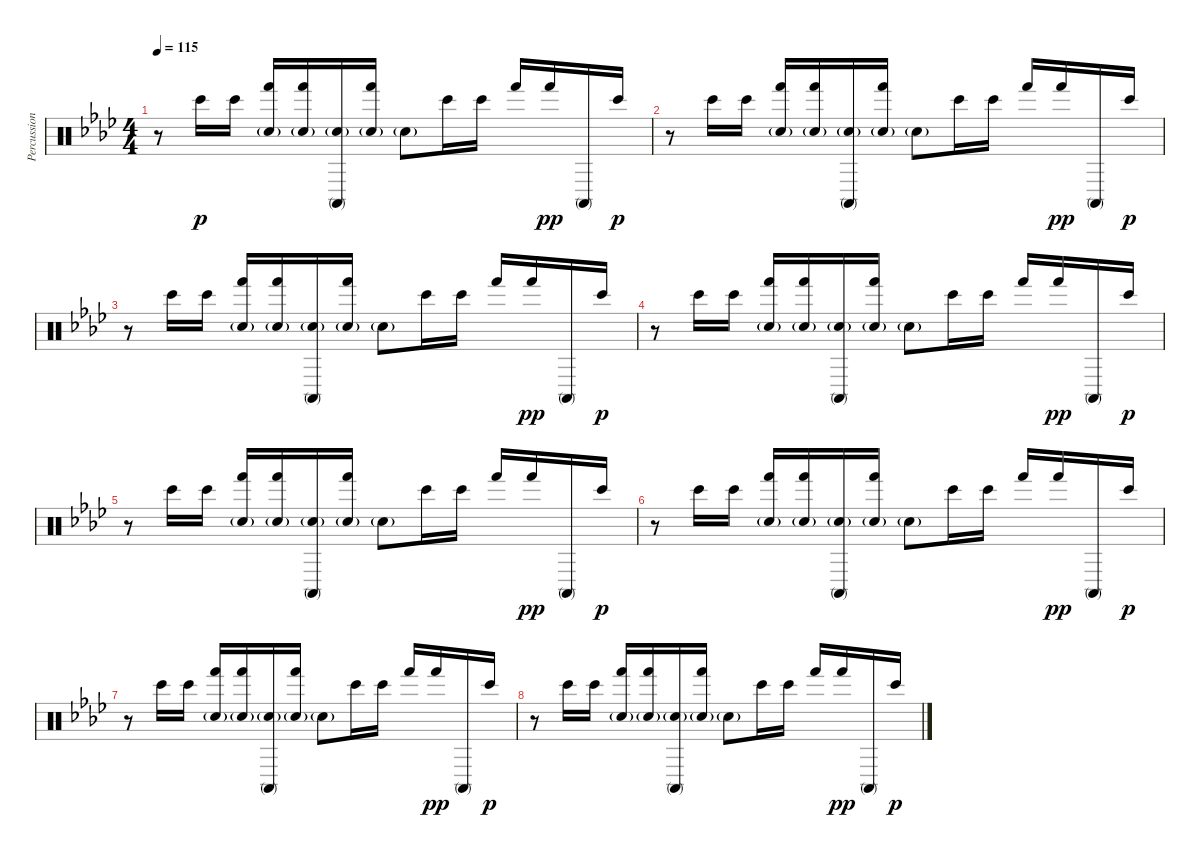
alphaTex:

\track ("Percussion" "Percussion") {instrument percussion}
\staff {score}
\articulation defaults
\ts (4 4)
\tempo 115
\clef neutral
\ks ab
r.8{dy p} "Bongo High (hit)".16 "Bongo High (hit)".16 ("Electric Snare (hit)"{g} "Hand (hit)").16 ("Electric Snare (hit)"{g} "Hand (hit)").16 ("Electric Snare (hit)"{g} "Conga high (mute)").16 ("Electric Snare (hit)"{g} "Hand (hit)").16 "Electric Snare (hit)"{g}.8 "Bongo High (hit)".16 "Bongo High (hit)".16 "Hand (hit)".16 "Hand (hit)".16{dy pp} "Conga high (mute)".16 "Bongo High (hit)".16{dy p} |
r.8 "Bongo High (hit)".16 "Bongo High (hit)".16 ("Electric Snare (hit)"{g} "Hand (hit)").16 ("Electric Snare (hit)"{g} "Hand (hit)").16 ("Electric Snare (hit)"{g} "Conga high (mute)").16 ("Electric Snare (hit)"{g} "Hand (hit)").16 "Electric Snare (hit)"{g}.8 "Bongo High (hit)".16 "Bongo High (hit)".16 "Hand (hit)".16 "Hand (hit)".16{dy pp} "Conga high (mute)".16 "Bongo High (hit)".16{dy p} |
r.8 "Bongo High (hit)".16 "Bongo High (hit)".16 ("Electric Snare (hit)"{g} "Hand (hit)").16 ("Electric Snare (hit)"{g} "Hand (hit)").16 ("Electric Snare (hit)"{g} "Conga high (mute)").16 ("Electric Snare (hit)"{g} "Hand (hit)").16 "Electric Snare (hit)"{g}.8 "Bongo High (hit)".16 "Bongo High (hit)".16 "Hand (hit)".16 "Hand (hit)".16{dy pp} "Conga high (mute)".16 "Bongo High (hit)".16{dy p} |
r.8 "Bongo High (hit)".16 "Bongo High (hit)".16 ("Electric Snare (hit)"{g} "Hand (hit)").16 ("Electric Snare (hit)"{g} "Hand (hit)").16 ("Electric Snare (hit)"{g} "Conga high (mute)").16 ("Electric Snare (hit)"{g} "Hand (hit)").16 "Electric Snare (hit)"{g}.8 "Bongo High (hit)".16 "Bongo High (hit)".16 "Hand (hit)".16 "Hand (hit)".16{dy pp} "Conga high (mute)".16 "Bongo High (hit)".16{dy p} |
r.8 "Bongo High (hit)".16 "Bongo High (hit)".16 ("Electric Snare (hit)"{g} "Hand (hit)").16 ("Electric Snare (hit)"{g} "Hand (hit)").16 ("Electric Snare (hit)"{g} "Conga high (mute)").16 ("Electric Snare (hit)"{g} "Hand (hit)").16 "Electric Snare (hit)"{g}.8 "Bongo High (hit)".16 "Bongo High (hit)".16 "Hand (hit)".16 "Hand (hit)".16{dy pp} "Conga high (mute)".16 "Bongo High (hit)".16{dy p} |
r.8 "Bongo High (hit)".16 "Bongo High (hit)".16 ("Electric Snare (hit)"{g} "Hand (hit)").16 ("Electric Snare (hit)"{g} "Hand (hit)").16 ("Electric Snare (hit)"{g} "Conga high (mute)").16 ("Electric Snare (hit)"{g} "Hand (hit)").16 "Electric Snare (hit)"{g}.8 "Bongo High (hit)".16 "Bongo High (hit)".16 "Hand (hit)".16 "Hand (hit)".16{dy pp} "Conga high (mute)".16 "Bongo High (hit)".16{dy p} |
r.8 "Bongo High (hit)".16 "Bongo High (hit)".16 ("Electric Snare (hit)"{g} "Hand (hit)").16 ("Electric Snare (hit)"{g} "Hand (hit)").16 ("Electric Snare (hit)"{g} "Conga high (mute)").16 ("Electric Snare (hit)"{g} "Hand (hit)").16 "Electric Snare (hit)"{g}.8 "Bongo High (hit)".16 "Bongo High (hit)".16 "Hand (hit)".16 "Hand (hit)".16{dy pp} "Conga high (mute)".16 "Bongo High (hit)".16{dy p} |
r.8 "Bongo High (hit)".16 "Bongo High (hit)".16 ("Electric Snare (hit)"{g} "Hand (hit)").16 ("Electric Snare (hit)"{g} "Hand (hit)").16 ("Electric Snare (hit)"{g} "Conga high (mute)").16 ("Electric Snare (hit)"{g} "Hand (hit)").16 "Electric Snare (hit)"{g}.8 "Bongo High (hit)".16 "Bongo High (hit)".16 "Hand (hit)".16 "Hand (hit)".16{dy pp} "Conga high (mute)".16 "Bongo High (hit)".16{dy p}
